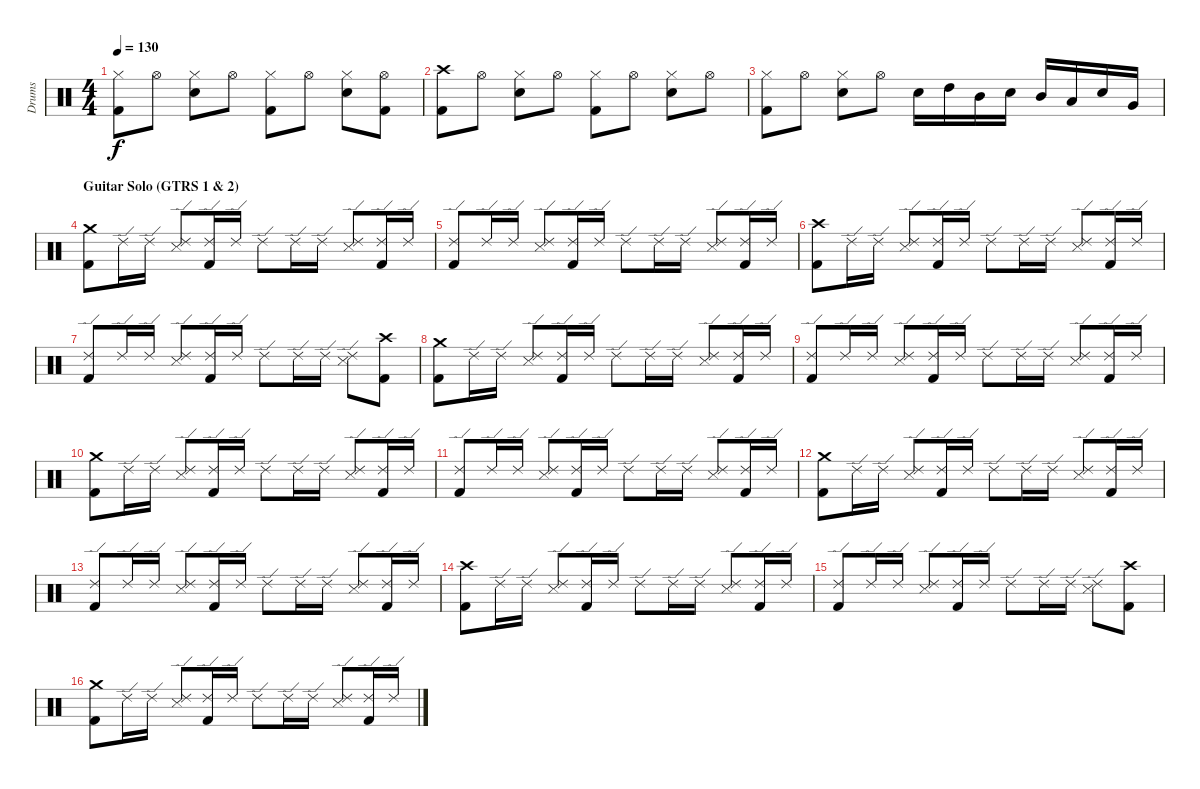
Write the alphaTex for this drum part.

\track ("Drums" "Drums") {instrument percussion}
\staff {score}
\articulation defaults
\ts (4 4)
\tempo 130
\clef neutral
\ks c
("Hi-Hat (closed)" "Kick (hit) 2").8{dy f} "Hi-Hat (open)".8 ("Hi-Hat (closed)" "Snare (hit) 2").8 "Hi-Hat (open)".8 ("Hi-Hat (closed)" "Kick (hit) 2").8 "Hi-Hat (open)".8 ("Hi-Hat (closed)" "Snare (hit) 2").8 ("Hi-Hat (open)" "Kick (hit) 2").8 |
("Crash high (hit)" "Kick (hit) 2").8 "Hi-Hat (open)".8 ("Hi-Hat (closed)" "Snare (hit) 2").8 "Hi-Hat (open)".8 ("Hi-Hat (closed)" "Kick (hit) 2").8 "Hi-Hat (open)".8 ("Hi-Hat (closed)" "Snare (hit) 2").8 "Hi-Hat (open)".8 |
("Hi-Hat (closed)" "Kick (hit) 2").8 "Hi-Hat (open)".8 ("Hi-Hat (closed)" "Snare (hit) 2").8 "Hi-Hat (open)".8 "Snare (hit) 2".16 "High Tom (hit)".16 "Mid Tom (hit)".16 "Snare (hit) 2".16 "Mid Tom (hit)".16 "Low Tom (hit)".16 "Snare (hit) 2".16 "Very Low Tom (hit)".16 |
\section ("" "Guitar Solo (GTRS 1 & 2)")
("Crash medium (hit)" "Kick (hit) 2").8 "Ride (edge) 2".16 "Ride (edge) 2".16 ("Ride (edge) 2" "Snare (side stick) 3").8 ("Ride (edge) 2" "Kick (hit) 2").16 "Ride (edge) 2".16 "Ride (edge) 2".8 "Ride (edge) 2".16 "Ride (edge) 2".16 ("Ride (edge) 2" "Snare (side stick) 3").8 ("Ride (edge) 2" "Kick (hit) 2").16 "Ride (edge) 2".16 |
("Ride (edge) 2" "Kick (hit) 2").8 "Ride (edge) 2".16 "Ride (edge) 2".16 ("Ride (edge) 2" "Snare (side stick) 3").8 ("Ride (edge) 2" "Kick (hit) 2").16 "Ride (edge) 2".16 "Ride (edge) 2".8 "Ride (edge) 2".16 "Ride (edge) 2".16 ("Ride (edge) 2" "Snare (side stick) 3").8 ("Ride (edge) 2" "Kick (hit) 2").16 "Ride (edge) 2".16 |
("Crash high (hit)" "Kick (hit) 2").8 "Ride (edge) 2".16 "Ride (edge) 2".16 ("Ride (edge) 2" "Snare (side stick) 3").8 ("Ride (edge) 2" "Kick (hit) 2").16 "Ride (edge) 2".16 "Ride (edge) 2".8 "Ride (edge) 2".16 "Ride (edge) 2".16 ("Ride (edge) 2" "Snare (side stick) 3").8 ("Ride (edge) 2" "Kick (hit) 2").16 "Ride (edge) 2".16 |
("Ride (edge) 2" "Kick (hit) 2").8 "Ride (edge) 2".16 "Ride (edge) 2".16 ("Ride (edge) 2" "Snare (side stick) 3").8 ("Ride (edge) 2" "Kick (hit) 2").16 "Ride (edge) 2".16 "Ride (edge) 2".8 "Ride (edge) 2".16 "Ride (edge) 2".16 ("Ride (edge) 2" "Snare (side stick) 3").8 ("Crash high (hit)" "Kick (hit) 2").8 |
("Crash medium (hit)" "Kick (hit) 2").8 "Ride (edge) 2".16 "Ride (edge) 2".16 ("Ride (edge) 2" "Snare (side stick) 3").8 ("Ride (edge) 2" "Kick (hit) 2").16 "Ride (edge) 2".16 "Ride (edge) 2".8 "Ride (edge) 2".16 "Ride (edge) 2".16 ("Ride (edge) 2" "Snare (side stick) 3").8 ("Ride (edge) 2" "Kick (hit) 2").16 "Ride (edge) 2".16 |
("Ride (edge) 2" "Kick (hit) 2").8 "Ride (edge) 2".16 "Ride (edge) 2".16 ("Ride (edge) 2" "Snare (side stick) 3").8 ("Ride (edge) 2" "Kick (hit) 2").16 "Ride (edge) 2".16 "Ride (edge) 2".8 "Ride (edge) 2".16 "Ride (edge) 2".16 ("Ride (edge) 2" "Snare (side stick) 3").8 ("Ride (edge) 2" "Kick (hit) 2").16 "Ride (edge) 2".16 |
("Crash medium (hit)" "Kick (hit) 2").8 "Ride (edge) 2".16 "Ride (edge) 2".16 ("Ride (edge) 2" "Snare (side stick) 3").8 ("Ride (edge) 2" "Kick (hit) 2").16 "Ride (edge) 2".16 "Ride (edge) 2".8 "Ride (edge) 2".16 "Ride (edge) 2".16 ("Ride (edge) 2" "Snare (side stick) 3").8 ("Ride (edge) 2" "Kick (hit) 2").16 "Ride (edge) 2".16 |
("Ride (edge) 2" "Kick (hit) 2").8 "Ride (edge) 2".16 "Ride (edge) 2".16 ("Ride (edge) 2" "Snare (side stick) 3").8 ("Ride (edge) 2" "Kick (hit) 2").16 "Ride (edge) 2".16 "Ride (edge) 2".8 "Ride (edge) 2".16 "Ride (edge) 2".16 ("Ride (edge) 2" "Snare (side stick) 3").8 ("Ride (edge) 2" "Kick (hit) 2").16 "Ride (edge) 2".16 |
("Crash medium (hit)" "Kick (hit) 2").8 "Ride (edge) 2".16 "Ride (edge) 2".16 ("Ride (edge) 2" "Snare (side stick) 3").8 ("Ride (edge) 2" "Kick (hit) 2").16 "Ride (edge) 2".16 "Ride (edge) 2".8 "Ride (edge) 2".16 "Ride (edge) 2".16 ("Ride (edge) 2" "Snare (side stick) 3").8 ("Ride (edge) 2" "Kick (hit) 2").16 "Ride (edge) 2".16 |
("Ride (edge) 2" "Kick (hit) 2").8 "Ride (edge) 2".16 "Ride (edge) 2".16 ("Ride (edge) 2" "Snare (side stick) 3").8 ("Ride (edge) 2" "Kick (hit) 2").16 "Ride (edge) 2".16 "Ride (edge) 2".8 "Ride (edge) 2".16 "Ride (edge) 2".16 ("Ride (edge) 2" "Snare (side stick) 3").8 ("Ride (edge) 2" "Kick (hit) 2").16 "Ride (edge) 2".16 |
("Crash high (hit)" "Kick (hit) 2").8 "Ride (edge) 2".16 "Ride (edge) 2".16 ("Ride (edge) 2" "Snare (side stick) 3").8 ("Ride (edge) 2" "Kick (hit) 2").16 "Ride (edge) 2".16 "Ride (edge) 2".8 "Ride (edge) 2".16 "Ride (edge) 2".16 ("Ride (edge) 2" "Snare (side stick) 3").8 ("Ride (edge) 2" "Kick (hit) 2").16 "Ride (edge) 2".16 |
("Ride (edge) 2" "Kick (hit) 2").8 "Ride (edge) 2".16 "Ride (edge) 2".16 ("Ride (edge) 2" "Snare (side stick) 3").8 ("Ride (edge) 2" "Kick (hit) 2").16 "Ride (edge) 2".16 "Ride (edge) 2".8 "Ride (edge) 2".16 "Ride (edge) 2".16 ("Ride (edge) 2" "Snare (side stick) 3").8 ("Crash high (hit)" "Kick (hit) 2").8 |
("Crash medium (hit)" "Kick (hit) 2").8 "Ride (edge) 2".16 "Ride (edge) 2".16 ("Ride (edge) 2" "Snare (side stick) 3").8 ("Ride (edge) 2" "Kick (hit) 2").16 "Ride (edge) 2".16 "Ride (edge) 2".8 "Ride (edge) 2".16 "Ride (edge) 2".16 ("Ride (edge) 2" "Snare (side stick) 3").8 ("Ride (edge) 2" "Kick (hit) 2").16 "Ride (edge) 2".16
